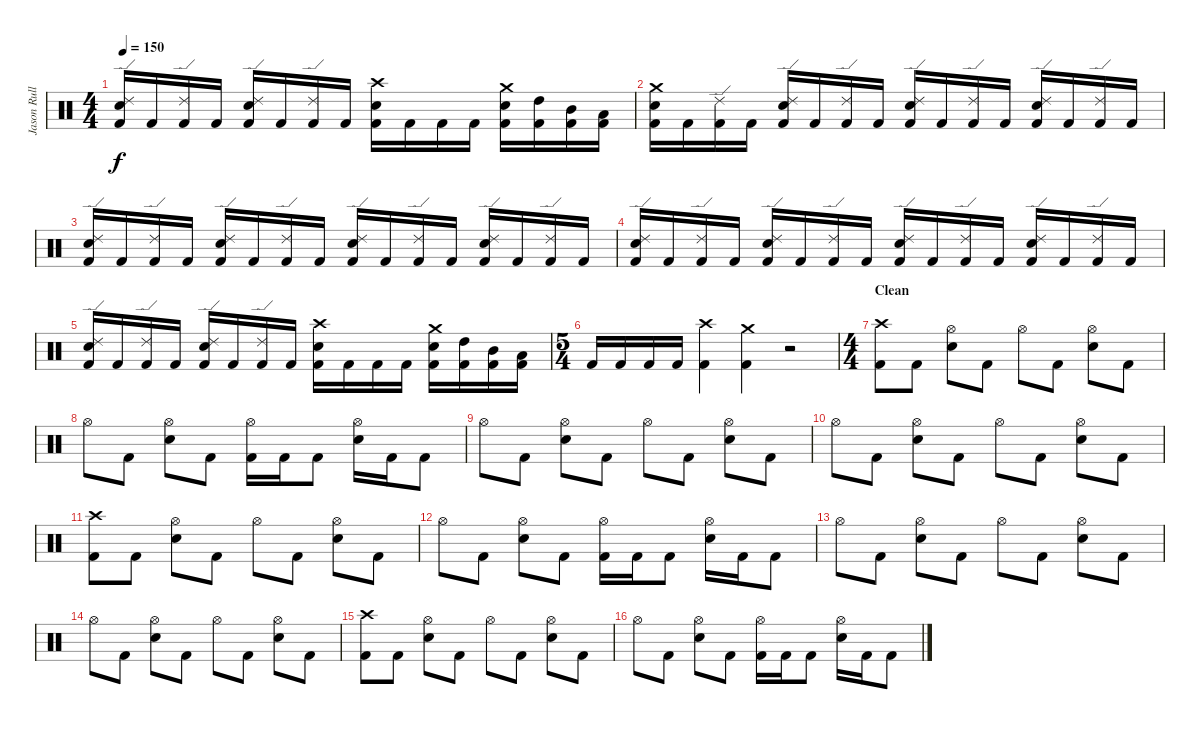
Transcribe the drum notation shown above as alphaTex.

\track ("Jason Rullo" "Jason Rull") {instrument percussion}
\staff {score}
\articulation defaults
\ts (4 4)
\tempo 150
\clef neutral
\ks c
("Ride (edge) 2" "Electric Snare (hit)" "Kick (hit) 2").16{dy f} "Kick (hit) 2".16 ("Ride (edge) 2" "Kick (hit) 2").16 "Kick (hit) 2".16 ("Ride (edge) 2" "Electric Snare (hit)" "Kick (hit) 2").16 "Kick (hit) 2".16 ("Ride (edge) 2" "Kick (hit) 2").16 "Kick (hit) 2".16 ("Crash high (hit)" "Electric Snare (hit)" "Kick (hit) 2").16 "Kick (hit) 2".16 "Kick (hit) 2".16 "Kick (hit) 2".16 ("Crash medium (hit)" "Electric Snare (hit)" "Kick (hit) 2").16 ("High Tom (hit)" "Kick (hit) 2").16 ("Mid Tom (hit)" "Kick (hit) 2").16 ("Low Tom (hit)" "Kick (hit) 2").16 |
("Crash medium (hit)" "Electric Snare (hit)" "Kick (hit) 2").16 "Kick (hit) 2".16 ("Ride (edge) 2" "Kick (hit) 2").16 "Kick (hit) 2".16 ("Ride (edge) 2" "Electric Snare (hit)" "Kick (hit) 2").16 "Kick (hit) 2".16 ("Ride (edge) 2" "Kick (hit) 2").16 "Kick (hit) 2".16 ("Ride (edge) 2" "Electric Snare (hit)" "Kick (hit) 2").16 "Kick (hit) 2".16 ("Ride (edge) 2" "Kick (hit) 2").16 "Kick (hit) 2".16 ("Ride (edge) 2" "Electric Snare (hit)" "Kick (hit) 2").16 "Kick (hit) 2".16 ("Ride (edge) 2" "Kick (hit) 2").16 "Kick (hit) 2".16 |
("Ride (edge) 2" "Electric Snare (hit)" "Kick (hit) 2").16 "Kick (hit) 2".16 ("Ride (edge) 2" "Kick (hit) 2").16 "Kick (hit) 2".16 ("Ride (edge) 2" "Electric Snare (hit)" "Kick (hit) 2").16 "Kick (hit) 2".16 ("Ride (edge) 2" "Kick (hit) 2").16 "Kick (hit) 2".16 ("Ride (edge) 2" "Electric Snare (hit)" "Kick (hit) 2").16 "Kick (hit) 2".16 ("Ride (edge) 2" "Kick (hit) 2").16 "Kick (hit) 2".16 ("Ride (edge) 2" "Electric Snare (hit)" "Kick (hit) 2").16 "Kick (hit) 2".16 ("Ride (edge) 2" "Kick (hit) 2").16 "Kick (hit) 2".16 |
("Ride (edge) 2" "Electric Snare (hit)" "Kick (hit) 2").16 "Kick (hit) 2".16 ("Ride (edge) 2" "Kick (hit) 2").16 "Kick (hit) 2".16 ("Ride (edge) 2" "Electric Snare (hit)" "Kick (hit) 2").16 "Kick (hit) 2".16 ("Ride (edge) 2" "Kick (hit) 2").16 "Kick (hit) 2".16 ("Ride (edge) 2" "Electric Snare (hit)" "Kick (hit) 2").16 "Kick (hit) 2".16 ("Ride (edge) 2" "Kick (hit) 2").16 "Kick (hit) 2".16 ("Ride (edge) 2" "Electric Snare (hit)" "Kick (hit) 2").16 "Kick (hit) 2".16 ("Ride (edge) 2" "Kick (hit) 2").16 "Kick (hit) 2".16 |
("Ride (edge) 2" "Electric Snare (hit)" "Kick (hit) 2").16 "Kick (hit) 2".16 ("Ride (edge) 2" "Kick (hit) 2").16 "Kick (hit) 2".16 ("Ride (edge) 2" "Electric Snare (hit)" "Kick (hit) 2").16 "Kick (hit) 2".16 ("Ride (edge) 2" "Kick (hit) 2").16 "Kick (hit) 2".16 ("Crash high (hit)" "Electric Snare (hit)" "Kick (hit) 2").16 "Kick (hit) 2".16 "Kick (hit) 2".16 "Kick (hit) 2".16 ("Crash medium (hit)" "Electric Snare (hit)" "Kick (hit) 2").16 ("High Tom (hit)" "Kick (hit) 2").16 ("Mid Tom (hit)" "Kick (hit) 2").16 ("Low Tom (hit)" "Kick (hit) 2").16 |
\ts (5 4)
"Kick (hit) 2".16 "Kick (hit) 2".16 "Kick (hit) 2".16 "Kick (hit) 2".16 ("Crash high (hit)" "Kick (hit) 2").4 ("Crash medium (hit)" "Kick (hit) 2").4 r.2 |
\ts (4 4)
\section ("" "Clean")
("Crash high (hit)" "Kick (hit) 2").8 "Kick (hit) 2".8 ("Hi-Hat (open)" "Electric Snare (hit)").8 "Kick (hit) 2".8 "Hi-Hat (open)".8 "Kick (hit) 2".8 ("Hi-Hat (open)" "Electric Snare (hit)").8 "Kick (hit) 2".8 |
"Hi-Hat (open)".8 "Kick (hit) 2".8 ("Hi-Hat (open)" "Electric Snare (hit)").8 "Kick (hit) 2".8 ("Hi-Hat (open)" "Kick (hit) 2").16 "Kick (hit) 2".16 "Kick (hit) 2".8 ("Hi-Hat (open)" "Electric Snare (hit)").16 "Kick (hit) 2".16 "Kick (hit) 2".8 |
"Hi-Hat (open)".8 "Kick (hit) 2".8 ("Hi-Hat (open)" "Electric Snare (hit)").8 "Kick (hit) 2".8 "Hi-Hat (open)".8 "Kick (hit) 2".8 ("Hi-Hat (open)" "Electric Snare (hit)").8 "Kick (hit) 2".8 |
"Hi-Hat (open)".8 "Kick (hit) 2".8 ("Hi-Hat (open)" "Electric Snare (hit)").8 "Kick (hit) 2".8 "Hi-Hat (open)".8 "Kick (hit) 2".8 ("Hi-Hat (open)" "Electric Snare (hit)").8 "Kick (hit) 2".8 |
("Crash high (hit)" "Kick (hit) 2").8 "Kick (hit) 2".8 ("Hi-Hat (open)" "Electric Snare (hit)").8 "Kick (hit) 2".8 "Hi-Hat (open)".8 "Kick (hit) 2".8 ("Hi-Hat (open)" "Electric Snare (hit)").8 "Kick (hit) 2".8 |
"Hi-Hat (open)".8 "Kick (hit) 2".8 ("Hi-Hat (open)" "Electric Snare (hit)").8 "Kick (hit) 2".8 ("Hi-Hat (open)" "Kick (hit) 2").16 "Kick (hit) 2".16 "Kick (hit) 2".8 ("Hi-Hat (open)" "Electric Snare (hit)").16 "Kick (hit) 2".16 "Kick (hit) 2".8 |
"Hi-Hat (open)".8 "Kick (hit) 2".8 ("Hi-Hat (open)" "Electric Snare (hit)").8 "Kick (hit) 2".8 "Hi-Hat (open)".8 "Kick (hit) 2".8 ("Hi-Hat (open)" "Electric Snare (hit)").8 "Kick (hit) 2".8 |
"Hi-Hat (open)".8 "Kick (hit) 2".8 ("Hi-Hat (open)" "Electric Snare (hit)").8 "Kick (hit) 2".8 "Hi-Hat (open)".8 "Kick (hit) 2".8 ("Hi-Hat (open)" "Electric Snare (hit)").8 "Kick (hit) 2".8 |
("Crash high (hit)" "Kick (hit) 2").8 "Kick (hit) 2".8 ("Hi-Hat (open)" "Electric Snare (hit)").8 "Kick (hit) 2".8 "Hi-Hat (open)".8 "Kick (hit) 2".8 ("Hi-Hat (open)" "Electric Snare (hit)").8 "Kick (hit) 2".8 |
"Hi-Hat (open)".8 "Kick (hit) 2".8 ("Hi-Hat (open)" "Electric Snare (hit)").8 "Kick (hit) 2".8 ("Hi-Hat (open)" "Kick (hit) 2").16 "Kick (hit) 2".16 "Kick (hit) 2".8 ("Hi-Hat (open)" "Electric Snare (hit)").16 "Kick (hit) 2".16 "Kick (hit) 2".8
